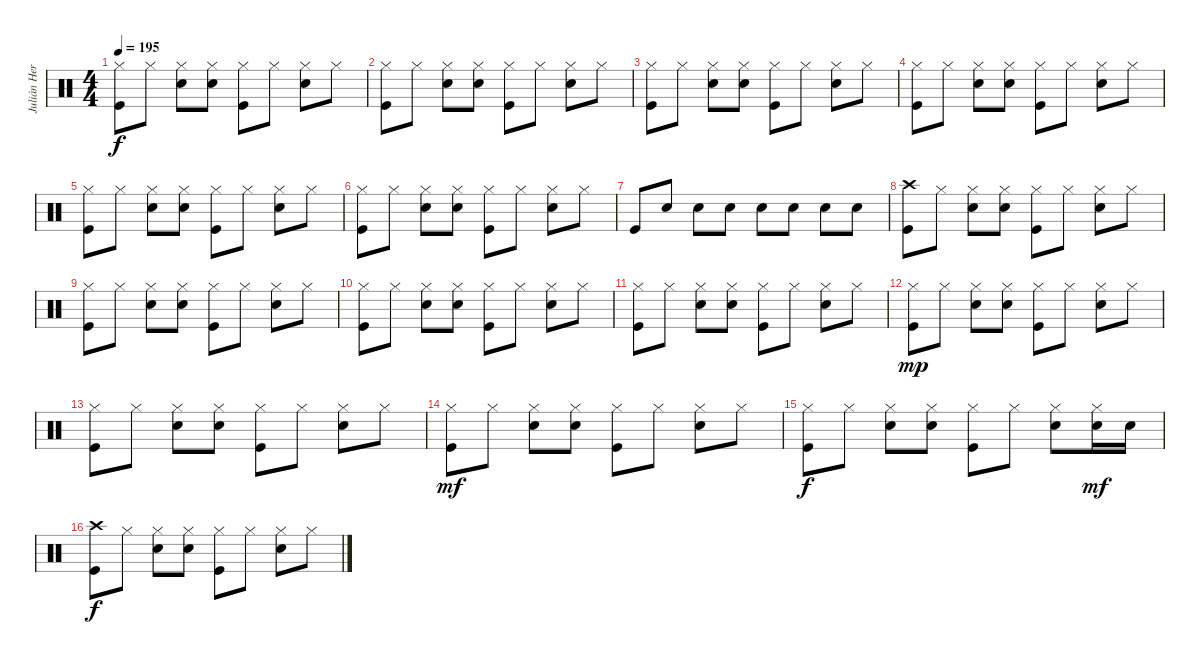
\track ("Julián Hernandez" "Julián Her") {instrument percussion}
\staff {score}
\articulation defaults
\ts (4 4)
\tempo 195
\clef neutral
\ks c
("Hi-Hat (closed)" "Kick (hit)").8{dy f} "Hi-Hat (closed)".8 ("Hi-Hat (closed)" "Electric Snare (hit)").8 ("Hi-Hat (closed)" "Electric Snare (hit)").8 ("Hi-Hat (closed)" "Kick (hit)").8 "Hi-Hat (closed)".8 ("Hi-Hat (closed)" "Electric Snare (hit)").8 "Hi-Hat (closed)".8 |
("Hi-Hat (closed)" "Kick (hit)").8 "Hi-Hat (closed)".8 ("Hi-Hat (closed)" "Electric Snare (hit)").8 ("Hi-Hat (closed)" "Electric Snare (hit)").8 ("Hi-Hat (closed)" "Kick (hit)").8 "Hi-Hat (closed)".8 ("Hi-Hat (closed)" "Electric Snare (hit)").8 "Hi-Hat (closed)".8 |
("Hi-Hat (closed)" "Kick (hit)").8 "Hi-Hat (closed)".8 ("Hi-Hat (closed)" "Electric Snare (hit)").8 ("Hi-Hat (closed)" "Electric Snare (hit)").8 ("Hi-Hat (closed)" "Kick (hit)").8 "Hi-Hat (closed)".8 ("Hi-Hat (closed)" "Electric Snare (hit)").8 "Hi-Hat (closed)".8 |
("Hi-Hat (closed)" "Kick (hit)").8 "Hi-Hat (closed)".8 ("Hi-Hat (closed)" "Electric Snare (hit)").8 ("Hi-Hat (closed)" "Electric Snare (hit)").8 ("Hi-Hat (closed)" "Kick (hit)").8 "Hi-Hat (closed)".8 ("Hi-Hat (closed)" "Electric Snare (hit)").8 "Hi-Hat (closed)".8 |
("Hi-Hat (closed)" "Kick (hit)").8 "Hi-Hat (closed)".8 ("Hi-Hat (closed)" "Electric Snare (hit)").8 ("Hi-Hat (closed)" "Electric Snare (hit)").8 ("Hi-Hat (closed)" "Kick (hit)").8 "Hi-Hat (closed)".8 ("Hi-Hat (closed)" "Electric Snare (hit)").8 "Hi-Hat (closed)".8 |
("Hi-Hat (closed)" "Kick (hit)").8 "Hi-Hat (closed)".8 ("Hi-Hat (closed)" "Electric Snare (hit)").8 ("Hi-Hat (closed)" "Electric Snare (hit)").8 ("Hi-Hat (closed)" "Kick (hit)").8 "Hi-Hat (closed)".8 ("Hi-Hat (closed)" "Electric Snare (hit)").8 "Hi-Hat (closed)".8 |
"Kick (hit)".8 "Electric Snare (hit)".8 "Electric Snare (hit)".8 "Electric Snare (hit)".8 "Electric Snare (hit)".8 "Electric Snare (hit)".8 "Electric Snare (hit)".8 "Electric Snare (hit)".8 |
("Crash high (hit)" "Kick (hit)").8 "Hi-Hat (closed)".8 ("Hi-Hat (closed)" "Electric Snare (hit)").8 ("Hi-Hat (closed)" "Electric Snare (hit)").8 ("Hi-Hat (closed)" "Kick (hit)").8 "Hi-Hat (closed)".8 ("Hi-Hat (closed)" "Electric Snare (hit)").8 "Hi-Hat (closed)".8 |
("Hi-Hat (closed)" "Kick (hit)").8 "Hi-Hat (closed)".8 ("Hi-Hat (closed)" "Electric Snare (hit)").8 ("Hi-Hat (closed)" "Electric Snare (hit)").8 ("Hi-Hat (closed)" "Kick (hit)").8 "Hi-Hat (closed)".8 ("Hi-Hat (closed)" "Electric Snare (hit)").8 "Hi-Hat (closed)".8 |
("Hi-Hat (closed)" "Kick (hit)").8 "Hi-Hat (closed)".8 ("Hi-Hat (closed)" "Electric Snare (hit)").8 ("Hi-Hat (closed)" "Electric Snare (hit)").8 ("Hi-Hat (closed)" "Kick (hit)").8 "Hi-Hat (closed)".8 ("Hi-Hat (closed)" "Electric Snare (hit)").8 "Hi-Hat (closed)".8 |
("Hi-Hat (closed)" "Kick (hit)").8 "Hi-Hat (closed)".8 ("Hi-Hat (closed)" "Electric Snare (hit)").8 ("Hi-Hat (closed)" "Electric Snare (hit)").8 ("Hi-Hat (closed)" "Kick (hit)").8 "Hi-Hat (closed)".8 ("Hi-Hat (closed)" "Electric Snare (hit)").8 "Hi-Hat (closed)".8 |
("Hi-Hat (closed)" "Kick (hit)").8{dy mp} "Hi-Hat (closed)".8 ("Hi-Hat (closed)" "Electric Snare (hit)").8 ("Hi-Hat (closed)" "Electric Snare (hit)").8 ("Hi-Hat (closed)" "Kick (hit)").8 "Hi-Hat (closed)".8 ("Hi-Hat (closed)" "Electric Snare (hit)").8 "Hi-Hat (closed)".8 |
("Hi-Hat (closed)" "Kick (hit)").8 "Hi-Hat (closed)".8 ("Hi-Hat (closed)" "Electric Snare (hit)").8 ("Hi-Hat (closed)" "Electric Snare (hit)").8 ("Hi-Hat (closed)" "Kick (hit)").8 "Hi-Hat (closed)".8 ("Hi-Hat (closed)" "Electric Snare (hit)").8 "Hi-Hat (closed)".8 |
("Hi-Hat (closed)" "Kick (hit)").8{dy mf} "Hi-Hat (closed)".8 ("Hi-Hat (closed)" "Electric Snare (hit)").8 ("Hi-Hat (closed)" "Electric Snare (hit)").8 ("Hi-Hat (closed)" "Kick (hit)").8 "Hi-Hat (closed)".8 ("Hi-Hat (closed)" "Electric Snare (hit)").8 "Hi-Hat (closed)".8 |
("Hi-Hat (closed)" "Kick (hit)").8{dy f} "Hi-Hat (closed)".8 ("Hi-Hat (closed)" "Electric Snare (hit)").8 ("Hi-Hat (closed)" "Electric Snare (hit)").8 ("Hi-Hat (closed)" "Kick (hit)").8 "Hi-Hat (closed)".8 ("Hi-Hat (closed)" "Electric Snare (hit)").8 ("Hi-Hat (closed)" "Electric Snare (hit)").16{dy mf} "Electric Snare (hit)".16 |
("Crash high (hit)" "Kick (hit)").8{dy f} "Hi-Hat (closed)".8 ("Hi-Hat (closed)" "Electric Snare (hit)").8 ("Hi-Hat (closed)" "Electric Snare (hit)").8 ("Hi-Hat (closed)" "Kick (hit)").8 "Hi-Hat (closed)".8 ("Hi-Hat (closed)" "Electric Snare (hit)").8 "Hi-Hat (closed)".8
